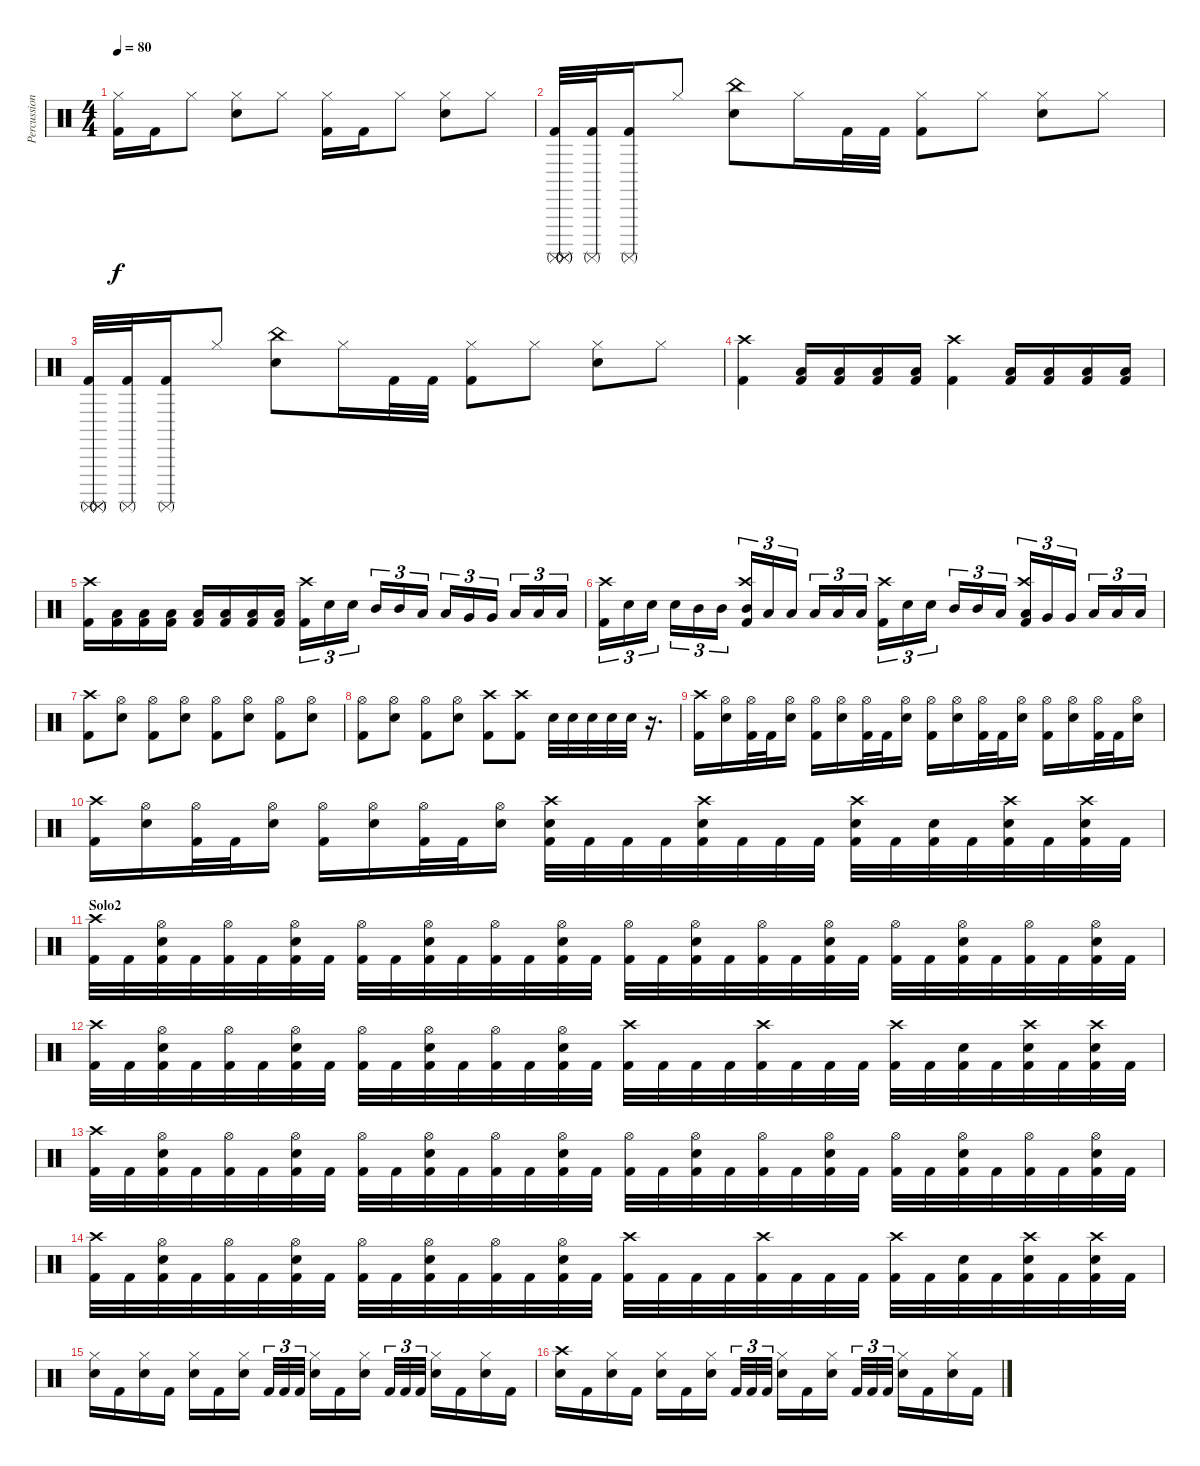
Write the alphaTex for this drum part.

\track ("Percussions" "Percussion") {instrument percussion}
\staff {score}
\articulation defaults
\ts (4 4)
\tempo 80
\clef neutral
\ks c
("Hi-Hat (closed)" "Kick (hit) 2").16{dy f} "Kick (hit) 2".16 "Hi-Hat (closed)".8 ("Hi-Hat (closed)" "Electric Snare (hit)").8 "Hi-Hat (closed)".8 ("Hi-Hat (closed)" "Kick (hit) 2").16 "Kick (hit) 2".16 "Hi-Hat (closed)".8 ("Hi-Hat (closed)" "Electric Snare (hit)").8 "Hi-Hat (closed)".8 |
("Surdo (mute)" "Surdo (mute)" "Kick (hit) 2" "Surdo (mute)").32 ("Kick (hit) 2" "Surdo (mute)").32 ("Kick (hit) 2" "Surdo (mute)").16 "Hi-Hat (closed)".8 ("China (hit)" "Electric Snare (hit)").8 "Hi-Hat (closed)".16 "Kick (hit) 2".32 "Kick (hit) 2".32 ("Hi-Hat (closed)" "Kick (hit) 2").8 "Hi-Hat (closed)".8 ("Hi-Hat (closed)" "Electric Snare (hit)").8 "Hi-Hat (closed)".8 |
("Surdo (mute)" "Surdo (mute)" "Kick (hit) 2" "Surdo (mute)").32 ("Kick (hit) 2" "Surdo (mute)").32 ("Kick (hit) 2" "Surdo (mute)").16 "Hi-Hat (closed)".8 ("China (hit)" "Electric Snare (hit)").8 "Hi-Hat (closed)".16 "Kick (hit) 2".32 "Kick (hit) 2".32 ("Hi-Hat (closed)" "Kick (hit) 2").8 "Hi-Hat (closed)".8 ("Hi-Hat (closed)" "Electric Snare (hit)").8 "Hi-Hat (closed)".8 |
("Crash high (hit)" "Kick (hit) 2").4 ("Low Floor Tom (hit)" "Kick (hit) 2").16 ("Low Floor Tom (hit)" "Kick (hit) 2").16 ("Low Floor Tom (hit)" "Kick (hit) 2").16 ("Low Floor Tom (hit)" "Kick (hit) 2").16 ("Crash high (hit)" "Kick (hit) 2").4 ("Low Floor Tom (hit)" "Kick (hit) 2").16 ("Low Floor Tom (hit)" "Kick (hit) 2").16 ("Low Floor Tom (hit)" "Kick (hit) 2").16 ("Low Floor Tom (hit)" "Kick (hit) 2").16 |
("Crash high (hit)" "Kick (hit) 2").16 ("Low Floor Tom (hit)" "Kick (hit) 2").16 ("Low Floor Tom (hit)" "Kick (hit) 2").16 ("Low Floor Tom (hit)" "Kick (hit) 2").16 ("Low Floor Tom (hit)" "Kick (hit) 2").16 ("Low Floor Tom (hit)" "Kick (hit) 2").16 ("Low Floor Tom (hit)" "Kick (hit) 2").16 ("Low Floor Tom (hit)" "Kick (hit) 2").16 ("Crash high (hit)" "Kick (hit) 2").16{tu (3 2)} "Electric Snare (hit)".16{tu (3 2)} "Electric Snare (hit)".16{tu (3 2)} "Mid Tom (hit)".16{tu (3 2)} "Mid Tom (hit)".16{tu (3 2)} "Low Tom (hit)".16{tu (3 2)} "Low Tom (hit)".16{tu (3 2)} "Very Low Tom (hit)".16{tu (3 2)} "Very Low Tom (hit)".16{tu (3 2)} "Low Floor Tom (hit)".16{tu (3 2)} "Low Floor Tom (hit)".16{tu (3 2)} "Low Floor Tom (hit)".16{tu (3 2)} |
("Crash high (hit)" "Kick (hit) 2").16{tu (3 2)} "Electric Snare (hit)".16{tu (3 2)} "Electric Snare (hit)".16{tu (3 2)} "Electric Snare (hit)".16{tu (3 2)} "Mid Tom (hit)".16{tu (3 2)} "Mid Tom (hit)".16{tu (3 2)} ("Crash high (hit)" "Mid Tom (hit)" "Kick (hit) 2").16{tu (3 2)} "Low Tom (hit)".16{tu (3 2)} "Low Tom (hit)".16{tu (3 2)} "Low Tom (hit)".16{tu (3 2)} "Low Floor Tom (hit)".16{tu (3 2)} "Low Floor Tom (hit)".16{tu (3 2)} ("Crash high (hit)" "Kick (hit) 2").16{tu (3 2)} "Electric Snare (hit)".16{tu (3 2)} "Electric Snare (hit)".16{tu (3 2)} "Mid Tom (hit)".16{tu (3 2)} "Mid Tom (hit)".16{tu (3 2)} "Low Tom (hit)".16{tu (3 2)} ("Crash high (hit)" "Low Tom (hit)" "Kick (hit) 2").16{tu (3 2)} "Very Low Tom (hit)".16{tu (3 2)} "Very Low Tom (hit)".16{tu (3 2)} "Low Floor Tom (hit)".16{tu (3 2)} "Low Floor Tom (hit)".16{tu (3 2)} "Low Floor Tom (hit)".16{tu (3 2)} |
("Crash high (hit)" "Kick (hit) 2").8 ("Hi-Hat (open)" "Electric Snare (hit)").8 ("Hi-Hat (open)" "Kick (hit) 2").8 ("Hi-Hat (open)" "Electric Snare (hit)").8 ("Hi-Hat (open)" "Kick (hit) 2").8 ("Hi-Hat (open)" "Electric Snare (hit)").8 ("Hi-Hat (open)" "Kick (hit) 2").8 ("Hi-Hat (open)" "Electric Snare (hit)").8 |
("Hi-Hat (open)" "Kick (hit) 2").8 ("Hi-Hat (open)" "Electric Snare (hit)").8 ("Hi-Hat (open)" "Kick (hit) 2").8 ("Hi-Hat (open)" "Electric Snare (hit)").8 ("Crash high (hit)" "Kick (hit) 2").8 ("Crash high (hit)" "Kick (hit) 2").8 "Electric Snare (hit)".32 "Electric Snare (hit)".32 "Electric Snare (hit)".32 "Electric Snare (hit)".32 "Electric Snare (hit)".32 r.16{d} |
("Crash high (hit)" "Kick (hit) 2").16 ("Hi-Hat (open)" "Electric Snare (hit)").16 ("Hi-Hat (open)" "Kick (hit) 2").32 "Kick (hit) 2".32 ("Hi-Hat (open)" "Electric Snare (hit)").16 ("Hi-Hat (open)" "Kick (hit) 2").16 ("Hi-Hat (open)" "Electric Snare (hit)").16 ("Hi-Hat (open)" "Kick (hit) 2").32 "Kick (hit) 2".32 ("Hi-Hat (open)" "Electric Snare (hit)").16 ("Hi-Hat (open)" "Kick (hit) 2").16 ("Hi-Hat (open)" "Electric Snare (hit)").16 ("Hi-Hat (open)" "Kick (hit) 2").32 "Kick (hit) 2".32 ("Hi-Hat (open)" "Electric Snare (hit)").16 ("Hi-Hat (open)" "Kick (hit) 2").16 ("Hi-Hat (open)" "Electric Snare (hit)").16 ("Hi-Hat (open)" "Kick (hit) 2").32 "Kick (hit) 2".32 ("Hi-Hat (open)" "Electric Snare (hit)").16 |
("Crash high (hit)" "Kick (hit) 2").16 ("Hi-Hat (open)" "Electric Snare (hit)").16 ("Hi-Hat (open)" "Kick (hit) 2").32 "Kick (hit) 2".32 ("Hi-Hat (open)" "Electric Snare (hit)").16 ("Hi-Hat (open)" "Kick (hit) 2").16 ("Hi-Hat (open)" "Electric Snare (hit)").16 ("Hi-Hat (open)" "Kick (hit) 2").32 "Kick (hit) 2".32 ("Hi-Hat (open)" "Electric Snare (hit)").16 ("Crash high (hit)" "Electric Snare (hit)" "Kick (hit) 2").32 "Kick (hit) 2".32 "Kick (hit) 2".32 "Kick (hit) 2".32 ("Crash high (hit)" "Electric Snare (hit)" "Kick (hit) 2").32 "Kick (hit) 2".32 "Kick (hit) 2".32 "Kick (hit) 2".32 ("Crash high (hit)" "Electric Snare (hit)" "Kick (hit) 2").32 "Kick (hit) 2".32 ("Electric Snare (hit)" "Kick (hit) 2").32 "Kick (hit) 2".32 ("Crash high (hit)" "Electric Snare (hit)" "Kick (hit) 2").32 "Kick (hit) 2".32 ("Crash high (hit)" "Electric Snare (hit)" "Kick (hit) 2").32 "Kick (hit) 2".32 |
\section ("" "Solo2")
("Crash high (hit)" "Kick (hit) 2").32 "Kick (hit) 2".32 ("Hi-Hat (open)" "Electric Snare (hit)" "Kick (hit) 2").32 "Kick (hit) 2".32 ("Hi-Hat (open)" "Kick (hit) 2").32 "Kick (hit) 2".32 ("Hi-Hat (open)" "Electric Snare (hit)" "Kick (hit) 2").32 "Kick (hit) 2".32 ("Hi-Hat (open)" "Kick (hit) 2").32 "Kick (hit) 2".32 ("Hi-Hat (open)" "Electric Snare (hit)" "Kick (hit) 2").32 "Kick (hit) 2".32 ("Hi-Hat (open)" "Kick (hit) 2").32 "Kick (hit) 2".32 ("Hi-Hat (open)" "Electric Snare (hit)" "Kick (hit) 2").32 "Kick (hit) 2".32 ("Hi-Hat (open)" "Kick (hit) 2").32 "Kick (hit) 2".32 ("Hi-Hat (open)" "Electric Snare (hit)" "Kick (hit) 2").32 "Kick (hit) 2".32 ("Hi-Hat (open)" "Kick (hit) 2").32 "Kick (hit) 2".32 ("Hi-Hat (open)" "Electric Snare (hit)" "Kick (hit) 2").32 "Kick (hit) 2".32 ("Hi-Hat (open)" "Kick (hit) 2").32 "Kick (hit) 2".32 ("Hi-Hat (open)" "Electric Snare (hit)" "Kick (hit) 2").32 "Kick (hit) 2".32 ("Hi-Hat (open)" "Kick (hit) 2").32 "Kick (hit) 2".32 ("Hi-Hat (open)" "Electric Snare (hit)" "Kick (hit) 2").32 "Kick (hit) 2".32 |
("Crash high (hit)" "Kick (hit) 2").32 "Kick (hit) 2".32 ("Hi-Hat (open)" "Electric Snare (hit)" "Kick (hit) 2").32 "Kick (hit) 2".32 ("Hi-Hat (open)" "Kick (hit) 2").32 "Kick (hit) 2".32 ("Hi-Hat (open)" "Electric Snare (hit)" "Kick (hit) 2").32 "Kick (hit) 2".32 ("Hi-Hat (open)" "Kick (hit) 2").32 "Kick (hit) 2".32 ("Hi-Hat (open)" "Electric Snare (hit)" "Kick (hit) 2").32 "Kick (hit) 2".32 ("Hi-Hat (open)" "Kick (hit) 2").32 "Kick (hit) 2".32 ("Hi-Hat (open)" "Electric Snare (hit)" "Kick (hit) 2").32 "Kick (hit) 2".32 ("Crash high (hit)" "Kick (hit) 2").32 "Kick (hit) 2".32 "Kick (hit) 2".32 "Kick (hit) 2".32 ("Crash high (hit)" "Kick (hit) 2").32 "Kick (hit) 2".32 "Kick (hit) 2".32 "Kick (hit) 2".32 ("Crash high (hit)" "Kick (hit) 2").32 "Kick (hit) 2".32 ("Electric Snare (hit)" "Kick (hit) 2").32 "Kick (hit) 2".32 ("Crash high (hit)" "Electric Snare (hit)" "Kick (hit) 2").32 "Kick (hit) 2".32 ("Crash high (hit)" "Electric Snare (hit)" "Kick (hit) 2").32 "Kick (hit) 2".32 |
("Crash high (hit)" "Kick (hit) 2").32 "Kick (hit) 2".32 ("Hi-Hat (open)" "Electric Snare (hit)" "Kick (hit) 2").32 "Kick (hit) 2".32 ("Hi-Hat (open)" "Kick (hit) 2").32 "Kick (hit) 2".32 ("Hi-Hat (open)" "Electric Snare (hit)" "Kick (hit) 2").32 "Kick (hit) 2".32 ("Hi-Hat (open)" "Kick (hit) 2").32 "Kick (hit) 2".32 ("Hi-Hat (open)" "Electric Snare (hit)" "Kick (hit) 2").32 "Kick (hit) 2".32 ("Hi-Hat (open)" "Kick (hit) 2").32 "Kick (hit) 2".32 ("Hi-Hat (open)" "Electric Snare (hit)" "Kick (hit) 2").32 "Kick (hit) 2".32 ("Hi-Hat (open)" "Kick (hit) 2").32 "Kick (hit) 2".32 ("Hi-Hat (open)" "Electric Snare (hit)" "Kick (hit) 2").32 "Kick (hit) 2".32 ("Hi-Hat (open)" "Kick (hit) 2").32 "Kick (hit) 2".32 ("Hi-Hat (open)" "Electric Snare (hit)" "Kick (hit) 2").32 "Kick (hit) 2".32 ("Hi-Hat (open)" "Kick (hit) 2").32 "Kick (hit) 2".32 ("Hi-Hat (open)" "Electric Snare (hit)" "Kick (hit) 2").32 "Kick (hit) 2".32 ("Hi-Hat (open)" "Kick (hit) 2").32 "Kick (hit) 2".32 ("Hi-Hat (open)" "Electric Snare (hit)" "Kick (hit) 2").32 "Kick (hit) 2".32 |
("Crash high (hit)" "Kick (hit) 2").32 "Kick (hit) 2".32 ("Hi-Hat (open)" "Electric Snare (hit)" "Kick (hit) 2").32 "Kick (hit) 2".32 ("Hi-Hat (open)" "Kick (hit) 2").32 "Kick (hit) 2".32 ("Hi-Hat (open)" "Electric Snare (hit)" "Kick (hit) 2").32 "Kick (hit) 2".32 ("Hi-Hat (open)" "Kick (hit) 2").32 "Kick (hit) 2".32 ("Hi-Hat (open)" "Electric Snare (hit)" "Kick (hit) 2").32 "Kick (hit) 2".32 ("Hi-Hat (open)" "Kick (hit) 2").32 "Kick (hit) 2".32 ("Hi-Hat (open)" "Electric Snare (hit)" "Kick (hit) 2").32 "Kick (hit) 2".32 ("Crash high (hit)" "Kick (hit) 2").32 "Kick (hit) 2".32 "Kick (hit) 2".32 "Kick (hit) 2".32 ("Crash high (hit)" "Kick (hit) 2").32 "Kick (hit) 2".32 "Kick (hit) 2".32 "Kick (hit) 2".32 ("Crash high (hit)" "Kick (hit) 2").32 "Kick (hit) 2".32 ("Electric Snare (hit)" "Kick (hit) 2").32 "Kick (hit) 2".32 ("Crash high (hit)" "Electric Snare (hit)" "Kick (hit) 2").32 "Kick (hit) 2".32 ("Crash high (hit)" "Electric Snare (hit)" "Kick (hit) 2").32 "Kick (hit) 2".32 |
("Hi-Hat (closed)" "Electric Snare (hit)").16 "Kick (hit) 2".16 ("Hi-Hat (closed)" "Electric Snare (hit)").16 "Kick (hit) 2".16 ("Hi-Hat (closed)" "Electric Snare (hit)").16 "Kick (hit) 2".16 ("Hi-Hat (closed)" "Electric Snare (hit)").16 "Kick (hit) 2".32{tu (3 2)} "Kick (hit) 2".32{tu (3 2)} "Kick (hit) 2".32{tu (3 2)} ("Hi-Hat (closed)" "Electric Snare (hit)").16 "Kick (hit) 2".16 ("Hi-Hat (closed)" "Electric Snare (hit)").16 "Kick (hit) 2".32{tu (3 2)} "Kick (hit) 2".32{tu (3 2)} "Kick (hit) 2".32{tu (3 2)} ("Hi-Hat (closed)" "Electric Snare (hit)").16 "Kick (hit) 2".16 ("Hi-Hat (closed)" "Electric Snare (hit)").16 "Kick (hit) 2".16 |
("Crash high (hit)" "Electric Snare (hit)").16 "Kick (hit) 2".16 ("Hi-Hat (closed)" "Electric Snare (hit)").16 "Kick (hit) 2".16 ("Hi-Hat (closed)" "Electric Snare (hit)").16 "Kick (hit) 2".16 ("Hi-Hat (closed)" "Electric Snare (hit)").16 "Kick (hit) 2".32{tu (3 2)} "Kick (hit) 2".32{tu (3 2)} "Kick (hit) 2".32{tu (3 2)} ("Hi-Hat (closed)" "Electric Snare (hit)").16 "Kick (hit) 2".16 ("Hi-Hat (closed)" "Electric Snare (hit)").16 "Kick (hit) 2".32{tu (3 2)} "Kick (hit) 2".32{tu (3 2)} "Kick (hit) 2".32{tu (3 2)} ("Hi-Hat (closed)" "Electric Snare (hit)").16 "Kick (hit) 2".16 ("Hi-Hat (closed)" "Electric Snare (hit)").16 "Kick (hit) 2".16
